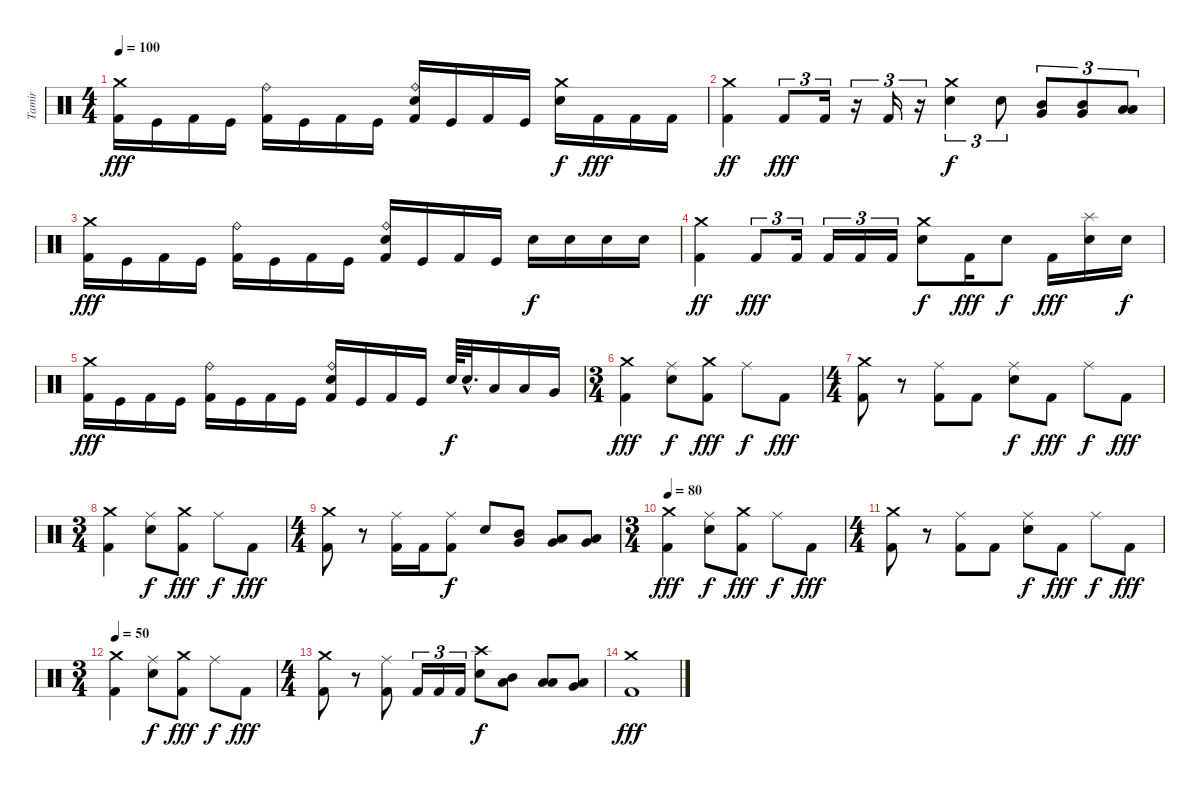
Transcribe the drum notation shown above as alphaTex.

\track ("Tamir" "Tamir") {instrument percussion}
\staff {score}
\articulation defaults
\ts (4 4)
\tempo 100
\clef neutral
\ks c
("Crash medium (hit)" "Kick (hit) 2").16{dy fff} "Kick (hit)".16 "Kick (hit) 2".16 "Kick (hit)".16 ("Ride (bell)" "Kick (hit) 2").16 "Kick (hit)".16 "Kick (hit) 2".16 "Kick (hit)".16 ("Ride (bell)" "Electric Snare (hit)" "Kick (hit) 2").16 "Kick (hit)".16 "Kick (hit) 2".16 "Kick (hit)".16 ("Crash medium (hit)" "Electric Snare (hit)").16{dy f} "Kick (hit) 2".16{dy fff} "Kick (hit) 2".16 "Kick (hit) 2".16 |
("Crash medium (hit)" "Kick (hit) 2").4{dy ff} "Kick (hit) 2".8{tu (3 2) dy fff} "Kick (hit) 2".16{tu (3 2)} r.16{tu (3 2)} "Kick (hit) 2".16{tu (3 2)} r.16{tu (3 2)} ("Crash medium (hit)" "Electric Snare (hit)").4{tu (3 2) dy f} "Electric Snare (hit)".8{tu (3 2)} ("Mid Tom (hit)" "Very Low Tom (hit)").8{tu (3 2)} ("Mid Tom (hit)" "Very Low Tom (hit)").8{tu (3 2)} ("Low Tom (hit)" "Low Floor Tom (hit)").8{tu (3 2)} |
("Crash medium (hit)" "Kick (hit) 2").16{dy fff} "Kick (hit)".16 "Kick (hit) 2".16 "Kick (hit)".16 ("Ride (bell)" "Kick (hit) 2").16 "Kick (hit)".16 "Kick (hit) 2".16 "Kick (hit)".16 ("Ride (bell)" "Electric Snare (hit)" "Kick (hit) 2").16 "Kick (hit)".16 "Kick (hit) 2".16 "Kick (hit)".16 "Electric Snare (hit)".16{dy f} "Electric Snare (hit)".16 "Electric Snare (hit)".16 "Electric Snare (hit)".16 |
("Crash medium (hit)" "Kick (hit) 2").4{dy ff} "Kick (hit) 2".8{tu (3 2) dy fff} "Kick (hit) 2".16{tu (3 2)} "Kick (hit) 2".16{tu (3 2)} "Kick (hit) 2".16{tu (3 2)} "Kick (hit) 2".16{tu (3 2)} ("Crash medium (hit)" "Electric Snare (hit)").8{dy f} "Kick (hit) 2".16{dy fff} "Electric Snare (hit)".8{dy f} "Kick (hit) 2".16{dy fff} ("Splash (hit)" "Electric Snare (hit)").16 "Electric Snare (hit)".16{dy f} |
("Crash medium (hit)" "Kick (hit) 2").16{dy fff} "Kick (hit)".16 "Kick (hit) 2".16 "Kick (hit)".16 ("Ride (bell)" "Kick (hit) 2").16 "Kick (hit)".16 "Kick (hit) 2".16 "Kick (hit)".16 ("Ride (bell)" "Electric Snare (hit)" "Kick (hit) 2").16 "Kick (hit)".16 "Kick (hit) 2".16 "Kick (hit)".16 "Electric Snare (hit)".64{dy f} "Electric Snare (hit)"{hac}.32{d} "Low Tom (hit)".16 "Low Tom (hit)".16 "Very Low Tom (hit)".16 |
\ts (3 4)
("Crash medium (hit)" "Kick (hit) 2").4{dy fff} ("Ride (middle)" "Electric Snare (hit)").8{dy f} ("Crash medium (hit)" "Kick (hit) 2").8{dy fff} "Ride (middle)".8{dy f} "Kick (hit) 2".8{dy fff} |
\ts (4 4)
("Crash medium (hit)" "Kick (hit) 2").8 r.8 ("Ride (middle)" "Kick (hit) 2").8 "Kick (hit) 2".8 ("Ride (middle)" "Electric Snare (hit)").8{dy f} "Kick (hit) 2".8{dy fff} "Ride (middle)".8{dy f} "Kick (hit) 2".8{dy fff} |
\ts (3 4)
("Crash medium (hit)" "Kick (hit) 2").4 ("Ride (middle)" "Electric Snare (hit)").8{dy f} ("Crash medium (hit)" "Kick (hit) 2").8{dy fff} "Ride (middle)".8{dy f} "Kick (hit) 2".8{dy fff} |
\ts (4 4)
("Crash medium (hit)" "Kick (hit) 2").8 r.8 ("Ride (middle)" "Kick (hit) 2").16 "Kick (hit) 2".16 ("Ride (middle)" "Kick (hit) 2").8{dy f} "Electric Snare (hit)".8 ("Very Low Tom (hit)" "Mid Tom (hit)").8 ("Very Low Tom (hit)" "Low Tom (hit)").8 ("Low Floor Tom (hit)" "Very Low Tom (hit)").8 |
\ts (3 4)
\tempo 80
("Crash medium (hit)" "Kick (hit) 2").4{dy fff} ("Ride (middle)" "Electric Snare (hit)").8{dy f} ("Crash medium (hit)" "Kick (hit) 2").8{dy fff} "Ride (middle)".8{dy f} "Kick (hit) 2".8{dy fff} |
\ts (4 4)
("Crash medium (hit)" "Kick (hit) 2").8 r.8 ("Ride (middle)" "Kick (hit) 2").8 "Kick (hit) 2".8 ("Ride (middle)" "Electric Snare (hit)").8{dy f} "Kick (hit) 2".8{dy fff} "Ride (middle)".8{dy f} "Kick (hit) 2".8{dy fff} |
\ts (3 4)
\tempo 50
("Crash medium (hit)" "Kick (hit) 2").4 ("Ride (middle)" "Electric Snare (hit)").8{dy f} ("Crash medium (hit)" "Kick (hit) 2").8{dy fff} "Ride (middle)".8{dy f} "Kick (hit) 2".8{dy fff} |
\ts (4 4)
("Crash medium (hit)" "Kick (hit) 2").8 r.8 ("Ride (middle)" "Kick (hit) 2").8 "Kick (hit) 2".16{tu (3 2)} "Kick (hit) 2".16{tu (3 2)} "Kick (hit) 2".16{tu (3 2)} ("Crash high (hit)" "Electric Snare (hit)").8{dy f} ("Mid Tom (hit)" "Low Floor Tom (hit)").8 ("Low Tom (hit)" "Low Floor Tom (hit)").8 ("Very Low Tom (hit)" "Low Floor Tom (hit)").8 |
("Crash medium (hit)" "Kick (hit) 2").1{dy fff}
